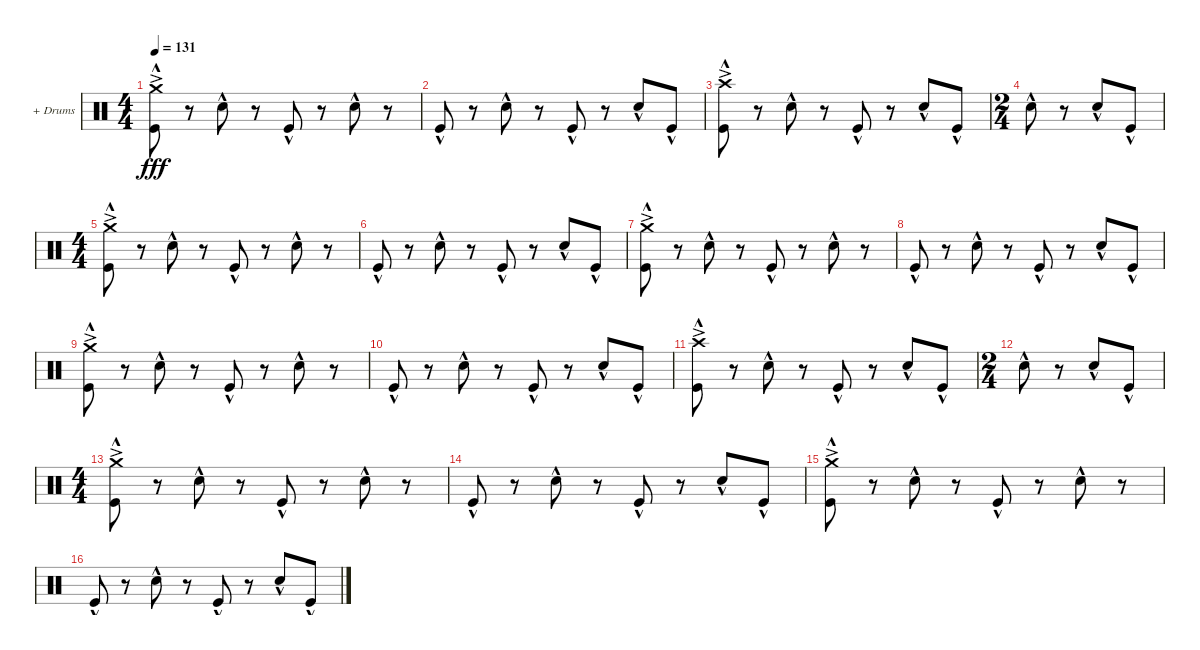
\defaultSystemsLayout 4
\bracketExtendMode groupsimilarinstruments
\firstSystemTrackNameOrientation horizontal
\otherSystemsTrackNameOrientation horizontal
\track ("+ Drums" "+ Drums") {instrument percussion}
\staff {score}
\articulation defaults
\ts (4 4)
\tempo 131
\clef neutral
\ks c
("Crash medium (hit)"{ac} "Kick (hit)"{hac}).8{dy fff} r.8 "Snare (hit) 2"{hac}.8 r.8 "Kick (hit)"{hac}.8 r.8 "Snare (hit) 2"{hac}.8 r.8 |
"Kick (hit)"{hac}.8 r.8 "Snare (hit) 2"{hac}.8 r.8 "Kick (hit)"{hac}.8 r.8 "Snare (hit) 2"{hac}.8 "Kick (hit)"{hac}.8 |
("Crash high (hit)"{ac} "Kick (hit)"{hac}).8 r.8 "Snare (hit) 2"{hac}.8 r.8 "Kick (hit)"{hac}.8 r.8 "Snare (hit) 2"{hac}.8 "Kick (hit)"{hac}.8 |
\ts (2 4)
"Snare (hit) 2"{hac}.8 r.8 "Snare (hit) 2"{hac}.8 "Kick (hit)"{hac}.8 |
\ts (4 4)
("Crash medium (hit)"{ac} "Kick (hit)"{hac}).8 r.8 "Snare (hit) 2"{hac}.8 r.8 "Kick (hit)"{hac}.8 r.8 "Snare (hit) 2"{hac}.8 r.8 |
"Kick (hit)"{hac}.8 r.8 "Snare (hit) 2"{hac}.8 r.8 "Kick (hit)"{hac}.8 r.8 "Snare (hit) 2"{hac}.8 "Kick (hit)"{hac}.8 |
("Crash medium (hit)"{ac} "Kick (hit)"{hac}).8 r.8 "Snare (hit) 2"{hac}.8 r.8 "Kick (hit)"{hac}.8 r.8 "Snare (hit) 2"{hac}.8 r.8 |
"Kick (hit)"{hac}.8 r.8 "Snare (hit) 2"{hac}.8 r.8 "Kick (hit)"{hac}.8 r.8 "Snare (hit) 2"{hac}.8 "Kick (hit)"{hac}.8 |
("Crash medium (hit)"{ac} "Kick (hit)"{hac}).8 r.8 "Snare (hit) 2"{hac}.8 r.8 "Kick (hit)"{hac}.8 r.8 "Snare (hit) 2"{hac}.8 r.8 |
"Kick (hit)"{hac}.8 r.8 "Snare (hit) 2"{hac}.8 r.8 "Kick (hit)"{hac}.8 r.8 "Snare (hit) 2"{hac}.8 "Kick (hit)"{hac}.8 |
("Crash high (hit)"{ac} "Kick (hit)"{hac}).8 r.8 "Snare (hit) 2"{hac}.8 r.8 "Kick (hit)"{hac}.8 r.8 "Snare (hit) 2"{hac}.8 "Kick (hit)"{hac}.8 |
\ts (2 4)
"Snare (hit) 2"{hac}.8 r.8 "Snare (hit) 2"{hac}.8 "Kick (hit)"{hac}.8 |
\ts (4 4)
("Crash medium (hit)"{ac} "Kick (hit)"{hac}).8 r.8 "Snare (hit) 2"{hac}.8 r.8 "Kick (hit)"{hac}.8 r.8 "Snare (hit) 2"{hac}.8 r.8 |
"Kick (hit)"{hac}.8 r.8 "Snare (hit) 2"{hac}.8 r.8 "Kick (hit)"{hac}.8 r.8 "Snare (hit) 2"{hac}.8 "Kick (hit)"{hac}.8 |
("Crash medium (hit)"{ac} "Kick (hit)"{hac}).8 r.8 "Snare (hit) 2"{hac}.8 r.8 "Kick (hit)"{hac}.8 r.8 "Snare (hit) 2"{hac}.8 r.8 |
"Kick (hit)"{hac}.8 r.8 "Snare (hit) 2"{hac}.8 r.8 "Kick (hit)"{hac}.8 r.8 "Snare (hit) 2"{hac}.8 "Kick (hit)"{hac}.8
